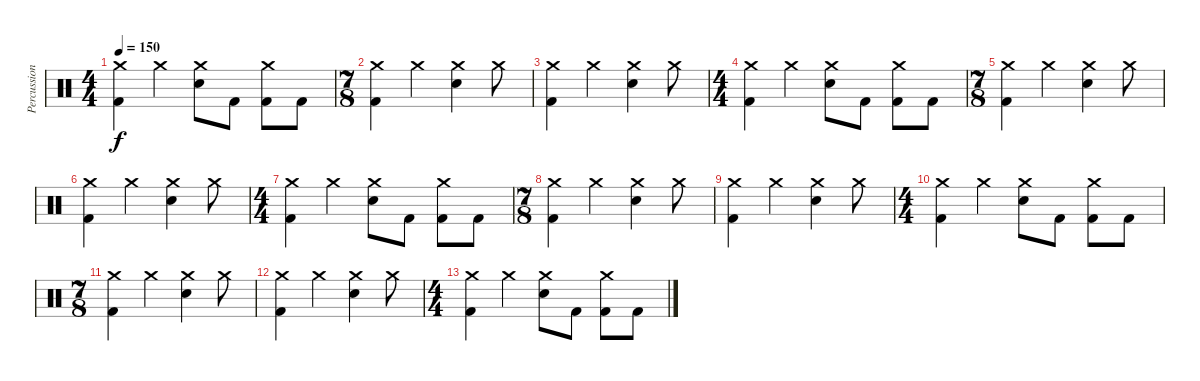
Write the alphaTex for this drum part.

\track ("Percussion" "Percussion") {instrument percussion}
\staff {score}
\articulation defaults
\ts (4 4)
\tempo 150
\clef neutral
\ks c
("Crash medium (hit)" "Kick (hit) 2").4{dy f} "Crash medium (hit)".4 ("Crash medium (hit)" "Electric Snare (hit)").8 "Kick (hit) 2".8 ("Crash medium (hit)" "Kick (hit) 2").8 "Kick (hit) 2".8 |
\ts (7 8)
("Crash medium (hit)" "Kick (hit) 2").4 "Crash medium (hit)".4 ("Crash medium (hit)" "Electric Snare (hit)").4 "Crash medium (hit)".8 |
("Crash medium (hit)" "Kick (hit) 2").4 "Crash medium (hit)".4 ("Crash medium (hit)" "Electric Snare (hit)").4 "Crash medium (hit)".8 |
\ts (4 4)
("Crash medium (hit)" "Kick (hit) 2").4 "Crash medium (hit)".4 ("Crash medium (hit)" "Electric Snare (hit)").8 "Kick (hit) 2".8 ("Crash medium (hit)" "Kick (hit) 2").8 "Kick (hit) 2".8 |
\ts (7 8)
("Crash medium (hit)" "Kick (hit) 2").4 "Crash medium (hit)".4 ("Crash medium (hit)" "Electric Snare (hit)").4 "Crash medium (hit)".8 |
("Crash medium (hit)" "Kick (hit) 2").4 "Crash medium (hit)".4 ("Crash medium (hit)" "Electric Snare (hit)").4 "Crash medium (hit)".8 |
\ts (4 4)
("Crash medium (hit)" "Kick (hit) 2").4 "Crash medium (hit)".4 ("Crash medium (hit)" "Electric Snare (hit)").8 "Kick (hit) 2".8 ("Crash medium (hit)" "Kick (hit) 2").8 "Kick (hit) 2".8 |
\ts (7 8)
("Crash medium (hit)" "Kick (hit) 2").4 "Crash medium (hit)".4 ("Crash medium (hit)" "Electric Snare (hit)").4 "Crash medium (hit)".8 |
("Crash medium (hit)" "Kick (hit) 2").4 "Crash medium (hit)".4 ("Crash medium (hit)" "Electric Snare (hit)").4 "Crash medium (hit)".8 |
\ts (4 4)
("Crash medium (hit)" "Kick (hit) 2").4 "Crash medium (hit)".4 ("Crash medium (hit)" "Electric Snare (hit)").8 "Kick (hit) 2".8 ("Crash medium (hit)" "Kick (hit) 2").8 "Kick (hit) 2".8 |
\ts (7 8)
("Crash medium (hit)" "Kick (hit) 2").4 "Crash medium (hit)".4 ("Crash medium (hit)" "Electric Snare (hit)").4 "Crash medium (hit)".8 |
("Crash medium (hit)" "Kick (hit) 2").4 "Crash medium (hit)".4 ("Crash medium (hit)" "Electric Snare (hit)").4 "Crash medium (hit)".8 |
\ts (4 4)
("Crash medium (hit)" "Kick (hit) 2").4 "Crash medium (hit)".4 ("Crash medium (hit)" "Electric Snare (hit)").8 "Kick (hit) 2".8 ("Crash medium (hit)" "Kick (hit) 2").8 "Kick (hit) 2".8
